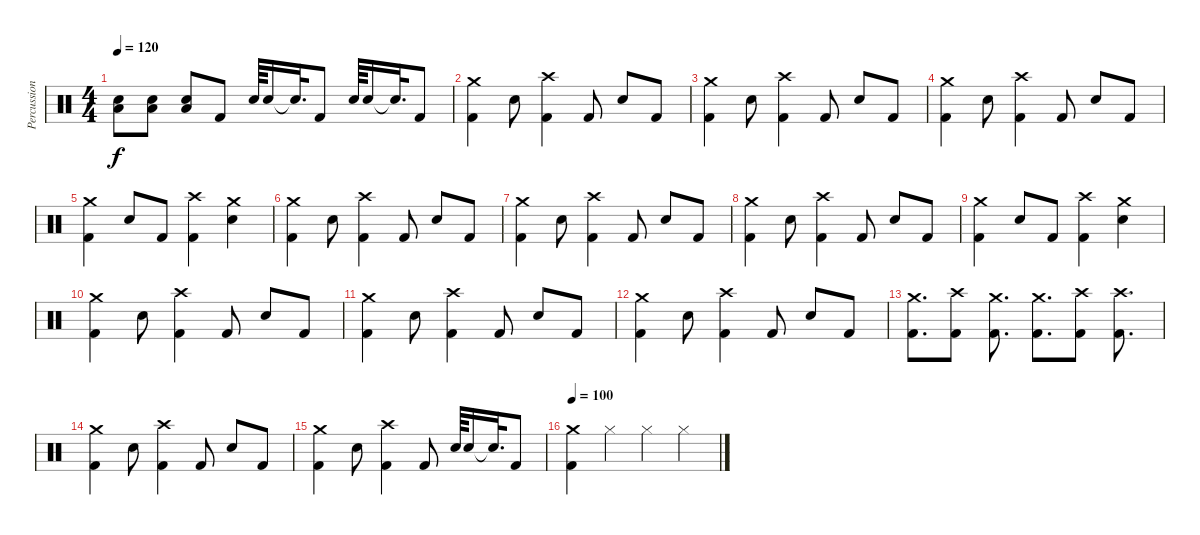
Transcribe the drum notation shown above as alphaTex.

\track ("Percussion" "Percussion") {instrument percussion}
\staff {score}
\articulation defaults
\ts (4 4)
\tempo 120
\clef neutral
\ks c
("Low Floor Tom (hit)" "Electric Snare (hit)").8{dy f} ("Low Floor Tom (hit)" "Electric Snare (hit)").8 ("Low Floor Tom (hit)" "Electric Snare (hit)").8 "Kick (hit) 2".8 "Electric Snare (hit)".64 "Electric Snare (hit)".16 "Snare (hit)"{t}.32{d} "Kick (hit) 2".8 "Electric Snare (hit)".64 "Electric Snare (hit)".16 "Snare (hit)"{t}.32{d} "Kick (hit) 2".8 |
("Crash medium (hit)" "Kick (hit) 2").4 "Electric Snare (hit)".8 ("Crash high (hit)" "Kick (hit) 2").4 "Kick (hit) 2".8 "Electric Snare (hit)".8 "Kick (hit) 2".8 |
("Crash medium (hit)" "Kick (hit) 2").4 "Electric Snare (hit)".8 ("Crash high (hit)" "Kick (hit) 2").4 "Kick (hit) 2".8 "Electric Snare (hit)".8 "Kick (hit) 2".8 |
("Crash medium (hit)" "Kick (hit) 2").4 "Electric Snare (hit)".8 ("Crash high (hit)" "Kick (hit) 2").4 "Kick (hit) 2".8 "Electric Snare (hit)".8 "Kick (hit) 2".8 |
("Crash medium (hit)" "Kick (hit) 2").4 "Electric Snare (hit)".8 "Kick (hit) 2".8 ("Crash high (hit)" "Kick (hit) 2").4 ("Crash medium (hit)" "Electric Snare (hit)").4 |
("Crash medium (hit)" "Kick (hit) 2").4 "Electric Snare (hit)".8 ("Crash high (hit)" "Kick (hit) 2").4 "Kick (hit) 2".8 "Electric Snare (hit)".8 "Kick (hit) 2".8 |
("Crash medium (hit)" "Kick (hit) 2").4 "Electric Snare (hit)".8 ("Crash high (hit)" "Kick (hit) 2").4 "Kick (hit) 2".8 "Electric Snare (hit)".8 "Kick (hit) 2".8 |
("Crash medium (hit)" "Kick (hit) 2").4 "Electric Snare (hit)".8 ("Crash high (hit)" "Kick (hit) 2").4 "Kick (hit) 2".8 "Electric Snare (hit)".8 "Kick (hit) 2".8 |
("Crash medium (hit)" "Kick (hit) 2").4 "Electric Snare (hit)".8 "Kick (hit) 2".8 ("Crash high (hit)" "Kick (hit) 2").4 ("Crash medium (hit)" "Electric Snare (hit)").4 |
("Crash medium (hit)" "Kick (hit) 2").4 "Electric Snare (hit)".8 ("Crash high (hit)" "Kick (hit) 2").4 "Kick (hit) 2".8 "Electric Snare (hit)".8 "Kick (hit) 2".8 |
("Crash medium (hit)" "Kick (hit) 2").4 "Electric Snare (hit)".8 ("Crash high (hit)" "Kick (hit) 2").4 "Kick (hit) 2".8 "Electric Snare (hit)".8 "Kick (hit) 2".8 |
("Crash medium (hit)" "Kick (hit) 2").4 "Electric Snare (hit)".8 ("Crash high (hit)" "Kick (hit) 2").4 "Kick (hit) 2".8 "Electric Snare (hit)".8 "Kick (hit) 2".8 |
("Crash medium (hit)" "Kick (hit) 2").8{d} ("Crash high (hit)" "Kick (hit) 2").8 ("Crash medium (hit)" "Kick (hit) 2").8{d} ("Crash medium (hit)" "Kick (hit) 2").8{d} ("Crash high (hit)" "Kick (hit) 2").8 ("Crash high (hit)" "Kick (hit) 2").8{d} |
("Crash medium (hit)" "Kick (hit) 2").4 "Electric Snare (hit)".8 ("Crash high (hit)" "Kick (hit) 2").4 "Kick (hit) 2".8 "Electric Snare (hit)".8 "Kick (hit) 2".8 |
("Crash medium (hit)" "Kick (hit) 2").4 "Electric Snare (hit)".8 ("Crash high (hit)" "Kick (hit) 2").4 "Kick (hit) 2".8 "Electric Snare (hit)".64 "Electric Snare (hit)".16 "Snare (hit)"{t}.32{d} "Kick (hit) 2".8 |
\tempo 100
("Crash medium (hit)" "Kick (hit) 2").4 "Hi-Hat (closed)".4 "Hi-Hat (closed)".4 "Hi-Hat (closed)".4
